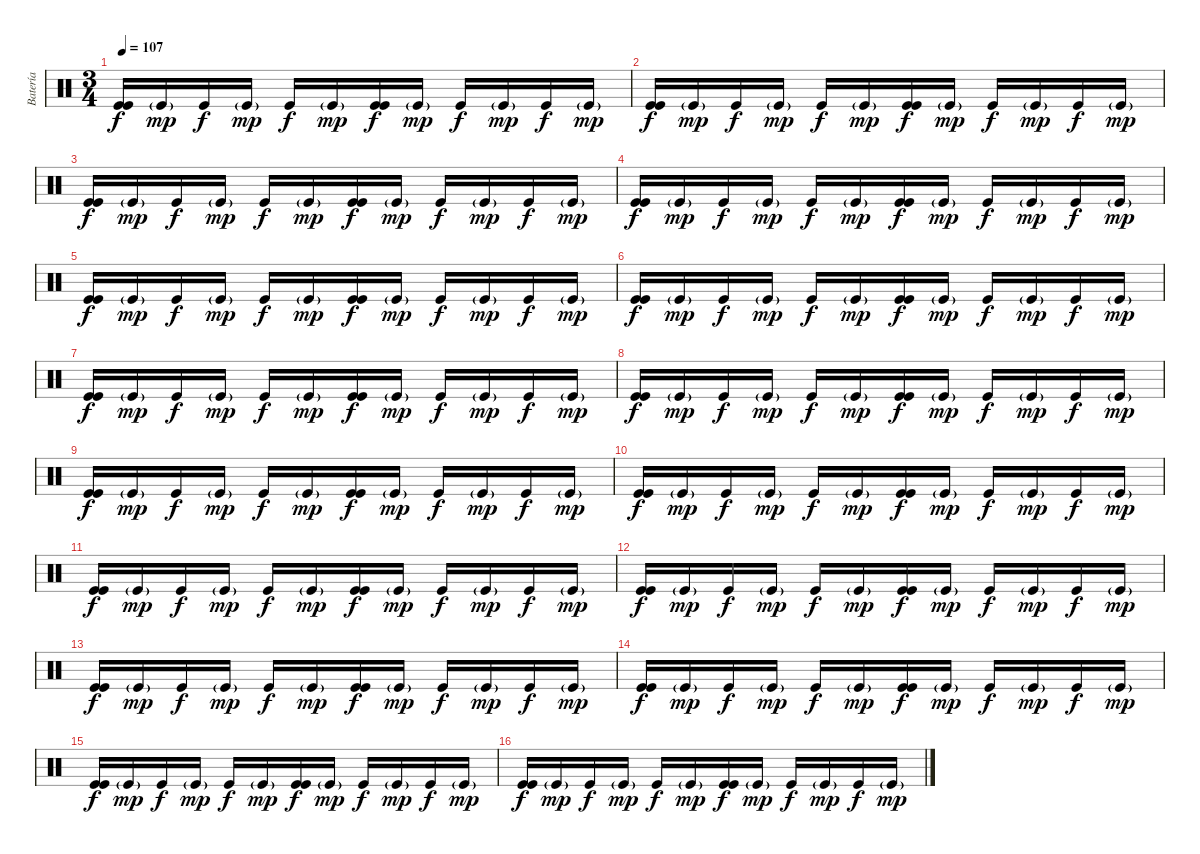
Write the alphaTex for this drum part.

\track ("Batería" "Batería") {instrument percussion}
\staff {score}
\articulation defaults
\ts (3 4)
\tempo 107
\clef neutral
\ks c
("Kick (hit)" "Kick (hit)").16{dy f} "Kick (hit)"{g}.16{dy mp} "Kick (hit)".16{dy f} "Kick (hit)"{g}.16{dy mp} "Kick (hit)".16{dy f} "Kick (hit)"{g}.16{dy mp} ("Kick (hit)" "Kick (hit)").16{dy f} "Kick (hit)"{g}.16{dy mp} "Kick (hit)".16{dy f} "Kick (hit)"{g}.16{dy mp} "Kick (hit)".16{dy f} "Kick (hit)"{g}.16{dy mp} |
("Kick (hit)" "Kick (hit)").16{dy f} "Kick (hit)"{g}.16{dy mp} "Kick (hit)".16{dy f} "Kick (hit)"{g}.16{dy mp} "Kick (hit)".16{dy f} "Kick (hit)"{g}.16{dy mp} ("Kick (hit)" "Kick (hit)").16{dy f} "Kick (hit)"{g}.16{dy mp} "Kick (hit)".16{dy f} "Kick (hit)"{g}.16{dy mp} "Kick (hit)".16{dy f} "Kick (hit)"{g}.16{dy mp} |
("Kick (hit)" "Kick (hit)").16{dy f} "Kick (hit)"{g}.16{dy mp} "Kick (hit)".16{dy f} "Kick (hit)"{g}.16{dy mp} "Kick (hit)".16{dy f} "Kick (hit)"{g}.16{dy mp} ("Kick (hit)" "Kick (hit)").16{dy f} "Kick (hit)"{g}.16{dy mp} "Kick (hit)".16{dy f} "Kick (hit)"{g}.16{dy mp} "Kick (hit)".16{dy f} "Kick (hit)"{g}.16{dy mp} |
("Kick (hit)" "Kick (hit)").16{dy f} "Kick (hit)"{g}.16{dy mp} "Kick (hit)".16{dy f} "Kick (hit)"{g}.16{dy mp} "Kick (hit)".16{dy f} "Kick (hit)"{g}.16{dy mp} ("Kick (hit)" "Kick (hit)").16{dy f} "Kick (hit)"{g}.16{dy mp} "Kick (hit)".16{dy f} "Kick (hit)"{g}.16{dy mp} "Kick (hit)".16{dy f} "Kick (hit)"{g}.16{dy mp} |
("Kick (hit)" "Kick (hit)").16{dy f} "Kick (hit)"{g}.16{dy mp} "Kick (hit)".16{dy f} "Kick (hit)"{g}.16{dy mp} "Kick (hit)".16{dy f} "Kick (hit)"{g}.16{dy mp} ("Kick (hit)" "Kick (hit)").16{dy f} "Kick (hit)"{g}.16{dy mp} "Kick (hit)".16{dy f} "Kick (hit)"{g}.16{dy mp} "Kick (hit)".16{dy f} "Kick (hit)"{g}.16{dy mp} |
("Kick (hit)" "Kick (hit)").16{dy f} "Kick (hit)"{g}.16{dy mp} "Kick (hit)".16{dy f} "Kick (hit)"{g}.16{dy mp} "Kick (hit)".16{dy f} "Kick (hit)"{g}.16{dy mp} ("Kick (hit)" "Kick (hit)").16{dy f} "Kick (hit)"{g}.16{dy mp} "Kick (hit)".16{dy f} "Kick (hit)"{g}.16{dy mp} "Kick (hit)".16{dy f} "Kick (hit)"{g}.16{dy mp} |
("Kick (hit)" "Kick (hit)").16{dy f} "Kick (hit)"{g}.16{dy mp} "Kick (hit)".16{dy f} "Kick (hit)"{g}.16{dy mp} "Kick (hit)".16{dy f} "Kick (hit)"{g}.16{dy mp} ("Kick (hit)" "Kick (hit)").16{dy f} "Kick (hit)"{g}.16{dy mp} "Kick (hit)".16{dy f} "Kick (hit)"{g}.16{dy mp} "Kick (hit)".16{dy f} "Kick (hit)"{g}.16{dy mp} |
("Kick (hit)" "Kick (hit)").16{dy f} "Kick (hit)"{g}.16{dy mp} "Kick (hit)".16{dy f} "Kick (hit)"{g}.16{dy mp} "Kick (hit)".16{dy f} "Kick (hit)"{g}.16{dy mp} ("Kick (hit)" "Kick (hit)").16{dy f} "Kick (hit)"{g}.16{dy mp} "Kick (hit)".16{dy f} "Kick (hit)"{g}.16{dy mp} "Kick (hit)".16{dy f} "Kick (hit)"{g}.16{dy mp} |
("Kick (hit)" "Kick (hit)").16{dy f} "Kick (hit)"{g}.16{dy mp} "Kick (hit)".16{dy f} "Kick (hit)"{g}.16{dy mp} "Kick (hit)".16{dy f} "Kick (hit)"{g}.16{dy mp} ("Kick (hit)" "Kick (hit)").16{dy f} "Kick (hit)"{g}.16{dy mp} "Kick (hit)".16{dy f} "Kick (hit)"{g}.16{dy mp} "Kick (hit)".16{dy f} "Kick (hit)"{g}.16{dy mp} |
("Kick (hit)" "Kick (hit)").16{dy f} "Kick (hit)"{g}.16{dy mp} "Kick (hit)".16{dy f} "Kick (hit)"{g}.16{dy mp} "Kick (hit)".16{dy f} "Kick (hit)"{g}.16{dy mp} ("Kick (hit)" "Kick (hit)").16{dy f} "Kick (hit)"{g}.16{dy mp} "Kick (hit)".16{dy f} "Kick (hit)"{g}.16{dy mp} "Kick (hit)".16{dy f} "Kick (hit)"{g}.16{dy mp} |
("Kick (hit)" "Kick (hit)").16{dy f} "Kick (hit)"{g}.16{dy mp} "Kick (hit)".16{dy f} "Kick (hit)"{g}.16{dy mp} "Kick (hit)".16{dy f} "Kick (hit)"{g}.16{dy mp} ("Kick (hit)" "Kick (hit)").16{dy f} "Kick (hit)"{g}.16{dy mp} "Kick (hit)".16{dy f} "Kick (hit)"{g}.16{dy mp} "Kick (hit)".16{dy f} "Kick (hit)"{g}.16{dy mp} |
("Kick (hit)" "Kick (hit)").16{dy f} "Kick (hit)"{g}.16{dy mp} "Kick (hit)".16{dy f} "Kick (hit)"{g}.16{dy mp} "Kick (hit)".16{dy f} "Kick (hit)"{g}.16{dy mp} ("Kick (hit)" "Kick (hit)").16{dy f} "Kick (hit)"{g}.16{dy mp} "Kick (hit)".16{dy f} "Kick (hit)"{g}.16{dy mp} "Kick (hit)".16{dy f} "Kick (hit)"{g}.16{dy mp} |
("Kick (hit)" "Kick (hit)").16{dy f} "Kick (hit)"{g}.16{dy mp} "Kick (hit)".16{dy f} "Kick (hit)"{g}.16{dy mp} "Kick (hit)".16{dy f} "Kick (hit)"{g}.16{dy mp} ("Kick (hit)" "Kick (hit)").16{dy f} "Kick (hit)"{g}.16{dy mp} "Kick (hit)".16{dy f} "Kick (hit)"{g}.16{dy mp} "Kick (hit)".16{dy f} "Kick (hit)"{g}.16{dy mp} |
("Kick (hit)" "Kick (hit)").16{dy f} "Kick (hit)"{g}.16{dy mp} "Kick (hit)".16{dy f} "Kick (hit)"{g}.16{dy mp} "Kick (hit)".16{dy f} "Kick (hit)"{g}.16{dy mp} ("Kick (hit)" "Kick (hit)").16{dy f} "Kick (hit)"{g}.16{dy mp} "Kick (hit)".16{dy f} "Kick (hit)"{g}.16{dy mp} "Kick (hit)".16{dy f} "Kick (hit)"{g}.16{dy mp} |
("Kick (hit)" "Kick (hit)").16{dy f} "Kick (hit)"{g}.16{dy mp} "Kick (hit)".16{dy f} "Kick (hit)"{g}.16{dy mp} "Kick (hit)".16{dy f} "Kick (hit)"{g}.16{dy mp} ("Kick (hit)" "Kick (hit)").16{dy f} "Kick (hit)"{g}.16{dy mp} "Kick (hit)".16{dy f} "Kick (hit)"{g}.16{dy mp} "Kick (hit)".16{dy f} "Kick (hit)"{g}.16{dy mp} |
("Kick (hit)" "Kick (hit)").16{dy f} "Kick (hit)"{g}.16{dy mp} "Kick (hit)".16{dy f} "Kick (hit)"{g}.16{dy mp} "Kick (hit)".16{dy f} "Kick (hit)"{g}.16{dy mp} ("Kick (hit)" "Kick (hit)").16{dy f} "Kick (hit)"{g}.16{dy mp} "Kick (hit)".16{dy f} "Kick (hit)"{g}.16{dy mp} "Kick (hit)".16{dy f} "Kick (hit)"{g}.16{dy mp}
